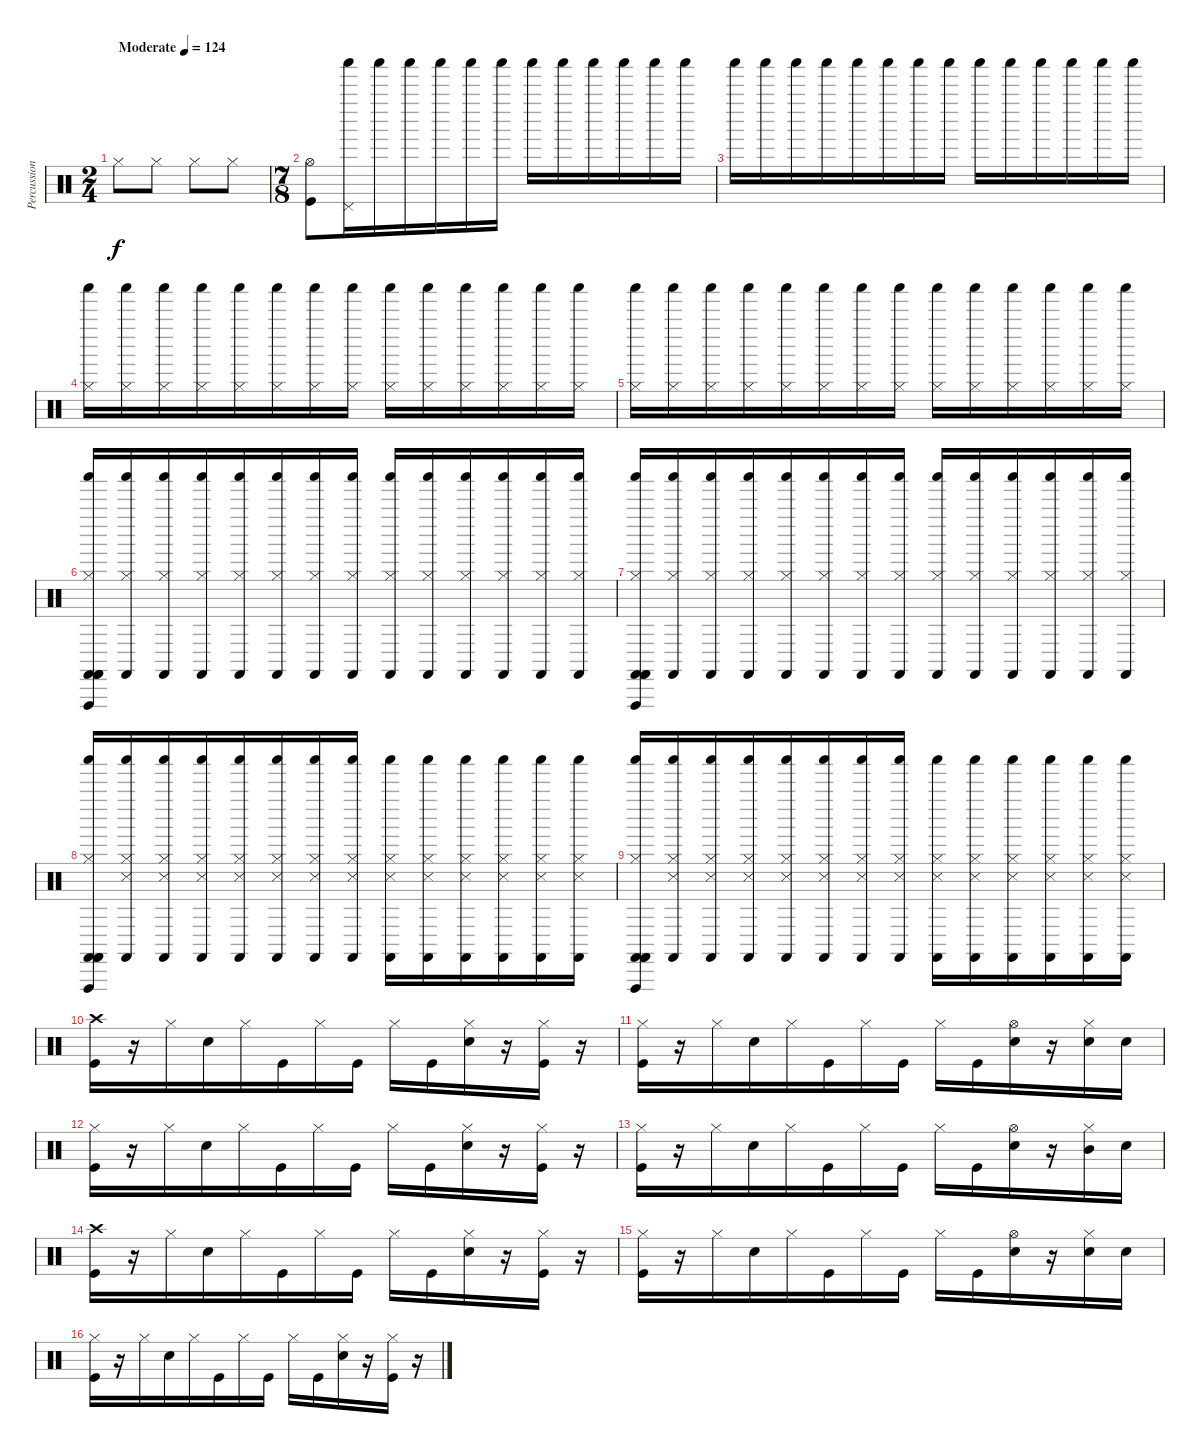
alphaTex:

\track ("Percussion" "Percussion") {instrument percussion}
\staff {score}
\articulation defaults
\ts (2 4)
\tempo (124 "Moderate")
\clef neutral
\ks c "Hi-Hat (closed)".8{dy f} "Hi-Hat (closed)".8 "Hi-Hat (closed)".8 "Hi-Hat (closed)".8
|
\ts (7 8)
("Kick (hit)" "Hi-Hat (open)").8 ("Shaker (hit)" "Pedal Hi-Hat (hit)").16{volume 14} "Shaker (hit)".16{volume 4} "Shaker (hit)".16{volume 14} "Shaker (hit)".16{volume 4} "Shaker (hit)".16{volume 14} "Shaker (hit)".16{volume 4} "Shaker (hit)".16{volume 14} "Shaker (hit)".16{volume 4} "Shaker (hit)".16{volume 14} "Shaker (hit)".16{volume 4} "Shaker (hit)".16{volume 14} "Shaker (hit)".16{volume 4} |
"Shaker (hit)".16{volume 14} "Shaker (hit)".16{volume 4} "Shaker (hit)".16{volume 14} "Shaker (hit)".16{volume 4} "Shaker (hit)".16{volume 14} "Shaker (hit)".16{volume 4} "Shaker (hit)".16{volume 14} "Shaker (hit)".16{volume 4} "Shaker (hit)".16{volume 14} "Shaker (hit)".16{volume 4} "Shaker (hit)".16{volume 14} "Shaker (hit)".16{volume 4} "Shaker (hit)".16{volume 14} "Shaker (hit)".16{volume 4} |
("Shaker (hit)" "Hi-Hat (closed)").16{volume 14} ("Shaker (hit)" "Hi-Hat (closed)").16{volume 4} ("Shaker (hit)" "Hi-Hat (closed)").16{volume 14} ("Shaker (hit)" "Hi-Hat (closed)").16{volume 4} ("Shaker (hit)" "Hi-Hat (closed)").16{volume 14} ("Shaker (hit)" "Hi-Hat (closed)").16{volume 4} ("Shaker (hit)" "Hi-Hat (closed)").16{volume 14} ("Shaker (hit)" "Hi-Hat (closed)").16{volume 4} ("Shaker (hit)" "Hi-Hat (closed)").16{volume 14} ("Shaker (hit)" "Hi-Hat (closed)").16{volume 4} ("Shaker (hit)" "Hi-Hat (closed)").16{volume 14} ("Shaker (hit)" "Hi-Hat (closed)").16{volume 4} ("Shaker (hit)" "Hi-Hat (closed)").16{volume 14} ("Shaker (hit)" "Hi-Hat (closed)").16{volume 4} |
("Shaker (hit)" "Hi-Hat (closed)").16{volume 14} ("Shaker (hit)" "Hi-Hat (closed)").16{volume 4} ("Shaker (hit)" "Hi-Hat (closed)").16{volume 14} ("Shaker (hit)" "Hi-Hat (closed)").16{volume 4} ("Shaker (hit)" "Hi-Hat (closed)").16{volume 14} ("Shaker (hit)" "Hi-Hat (closed)").16{volume 4} ("Shaker (hit)" "Hi-Hat (closed)").16{volume 14} ("Shaker (hit)" "Hi-Hat (closed)").16{volume 4} ("Shaker (hit)" "Hi-Hat (closed)").16{volume 14} ("Shaker (hit)" "Hi-Hat (closed)").16{volume 4} ("Shaker (hit)" "Hi-Hat (closed)").16{volume 14} ("Shaker (hit)" "Hi-Hat (closed)").16{volume 4} ("Shaker (hit)" "Hi-Hat (closed)").16{volume 14} ("Shaker (hit)" "Hi-Hat (closed)").16{volume 4} |
("Shaker (hit)" "Hi-Hat (closed)" "Vibraslap (hit)" "Castanets (hit)" "Castanets (hit)" "Castanets (hit)").16{volume 14} ("Shaker (hit)" "Hi-Hat (closed)" "Castanets (hit)").16{volume 4} ("Shaker (hit)" "Hi-Hat (closed)" "Castanets (hit)").16{volume 14} ("Shaker (hit)" "Hi-Hat (closed)" "Castanets (hit)").16{volume 4} ("Shaker (hit)" "Hi-Hat (closed)" "Castanets (hit)").16{volume 14} ("Shaker (hit)" "Hi-Hat (closed)" "Castanets (hit)").16{volume 4} ("Shaker (hit)" "Hi-Hat (closed)" "Castanets (hit)").16{volume 14} ("Shaker (hit)" "Hi-Hat (closed)" "Castanets (hit)").16{volume 4} ("Shaker (hit)" "Hi-Hat (closed)" "Castanets (hit)").16{volume 14} ("Shaker (hit)" "Hi-Hat (closed)" "Castanets (hit)").16{volume 4} ("Shaker (hit)" "Hi-Hat (closed)" "Castanets (hit)").16{volume 14} ("Shaker (hit)" "Hi-Hat (closed)" "Castanets (hit)").16{volume 4} ("Shaker (hit)" "Hi-Hat (closed)" "Castanets (hit)").16{volume 14} ("Shaker (hit)" "Hi-Hat (closed)" "Castanets (hit)").16{volume 4} |
("Shaker (hit)" "Hi-Hat (closed)" "Vibraslap (hit)" "Castanets (hit)" "Castanets (hit)" "Castanets (hit)").16{volume 14} ("Shaker (hit)" "Hi-Hat (closed)" "Castanets (hit)").16{volume 4} ("Shaker (hit)" "Hi-Hat (closed)" "Castanets (hit)").16{volume 14} ("Shaker (hit)" "Hi-Hat (closed)" "Castanets (hit)").16{volume 4} ("Shaker (hit)" "Hi-Hat (closed)" "Castanets (hit)").16{volume 14} ("Shaker (hit)" "Hi-Hat (closed)" "Castanets (hit)").16{volume 4} ("Shaker (hit)" "Hi-Hat (closed)" "Castanets (hit)").16{volume 14} ("Shaker (hit)" "Hi-Hat (closed)" "Castanets (hit)").16{volume 4} ("Shaker (hit)" "Hi-Hat (closed)" "Castanets (hit)").16{volume 14} ("Shaker (hit)" "Hi-Hat (closed)" "Castanets (hit)").16{volume 4} ("Shaker (hit)" "Hi-Hat (closed)" "Castanets (hit)").16{volume 14} ("Shaker (hit)" "Hi-Hat (closed)" "Castanets (hit)").16{volume 4} ("Shaker (hit)" "Hi-Hat (closed)" "Castanets (hit)").16{volume 14} ("Shaker (hit)" "Hi-Hat (closed)" "Castanets (hit)").16{volume 4} |
("Shaker (hit)" "Hi-Hat (closed)" "Vibraslap (hit)" "Castanets (hit)" "Castanets (hit)" "Castanets (hit)").16{volume 14} ("Shaker (hit)" "Hi-Hat (closed)" "Castanets (hit)" "Snare (side stick) 3").16{volume 4} ("Shaker (hit)" "Hi-Hat (closed)" "Castanets (hit)" "Snare (side stick) 3").16{volume 14} ("Shaker (hit)" "Hi-Hat (closed)" "Castanets (hit)" "Snare (side stick) 3").16{volume 4} ("Shaker (hit)" "Hi-Hat (closed)" "Castanets (hit)" "Snare (side stick) 3").16{volume 14} ("Shaker (hit)" "Hi-Hat (closed)" "Castanets (hit)" "Snare (side stick) 3").16{volume 4} ("Shaker (hit)" "Hi-Hat (closed)" "Castanets (hit)" "Snare (side stick) 3").16{volume 14} ("Shaker (hit)" "Hi-Hat (closed)" "Castanets (hit)" "Snare (side stick) 3").16{volume 4} ("Shaker (hit)" "Hi-Hat (closed)" "Castanets (hit)" "Snare (side stick) 3").16{volume 14} ("Shaker (hit)" "Hi-Hat (closed)" "Castanets (hit)" "Snare (side stick) 3").16{volume 4} ("Shaker (hit)" "Hi-Hat (closed)" "Castanets (hit)" "Snare (side stick) 3").16{volume 14} ("Shaker (hit)" "Hi-Hat (closed)" "Castanets (hit)" "Snare (side stick) 3").16{volume 4} ("Shaker (hit)" "Hi-Hat (closed)" "Castanets (hit)" "Snare (side stick) 3").16{volume 14} ("Shaker (hit)" "Hi-Hat (closed)" "Castanets (hit)" "Snare (side stick) 3").16{volume 4} |
("Shaker (hit)" "Hi-Hat (closed)" "Vibraslap (hit)" "Castanets (hit)" "Castanets (hit)" "Castanets (hit)").16{volume 14} ("Shaker (hit)" "Hi-Hat (closed)" "Castanets (hit)" "Snare (side stick) 3").16{volume 4} ("Shaker (hit)" "Hi-Hat (closed)" "Castanets (hit)" "Snare (side stick) 3").16{volume 14} ("Shaker (hit)" "Hi-Hat (closed)" "Castanets (hit)" "Snare (side stick) 3").16{volume 4} ("Shaker (hit)" "Hi-Hat (closed)" "Castanets (hit)" "Snare (side stick) 3").16{volume 14} ("Shaker (hit)" "Hi-Hat (closed)" "Castanets (hit)" "Snare (side stick) 3").16{volume 4} ("Shaker (hit)" "Hi-Hat (closed)" "Castanets (hit)" "Snare (side stick) 3").16{volume 14} ("Shaker (hit)" "Hi-Hat (closed)" "Castanets (hit)" "Snare (side stick) 3").16{volume 4} ("Shaker (hit)" "Hi-Hat (closed)" "Castanets (hit)" "Snare (side stick) 3").16{volume 14} ("Shaker (hit)" "Hi-Hat (closed)" "Castanets (hit)" "Snare (side stick) 3").16{volume 4} ("Shaker (hit)" "Hi-Hat (closed)" "Castanets (hit)" "Snare (side stick) 3").16{volume 14} ("Shaker (hit)" "Hi-Hat (closed)" "Castanets (hit)" "Snare (side stick) 3").16{volume 4} ("Shaker (hit)" "Hi-Hat (closed)" "Castanets (hit)" "Snare (side stick) 3").16{volume 14} ("Shaker (hit)" "Hi-Hat (closed)" "Castanets (hit)" "Snare (side stick) 3").16{volume 4} |
("Kick (hit)" "Crash high (hit)").16{volume 13} r.16 "Hi-Hat (closed)".16 "Snare (hit) 2".16 "Hi-Hat (closed)".16 "Kick (hit)".16 "Hi-Hat (closed)".16 "Kick (hit)".16 "Hi-Hat (closed)".16 "Kick (hit)".16 ("Hi-Hat (closed)" "Snare (hit) 2").16 r.16 ("Hi-Hat (closed)" "Kick (hit)").16 r.16 |
("Kick (hit)" "Hi-Hat (closed)").16{volume 13} r.16 "Hi-Hat (closed)".16 "Snare (hit) 2".16 "Hi-Hat (closed)".16 "Kick (hit)".16 "Hi-Hat (closed)".16 "Kick (hit)".16 "Hi-Hat (closed)".16 "Kick (hit)".16 ("Hi-Hat (open)" "Snare (hit) 2").16 r.16 ("Hi-Hat (closed)" "Snare (hit) 2").16 "Snare (hit) 2".16 |
("Kick (hit)" "Hi-Hat (closed)").16{volume 13} r.16 "Hi-Hat (closed)".16 "Snare (hit) 2".16 "Hi-Hat (closed)".16 "Kick (hit)".16 "Hi-Hat (closed)".16 "Kick (hit)".16 "Hi-Hat (closed)".16 "Kick (hit)".16 ("Hi-Hat (closed)" "Snare (hit) 2").16 r.16 ("Hi-Hat (closed)" "Kick (hit)").16 r.16 |
("Kick (hit)" "Hi-Hat (closed)").16{volume 13} r.16 "Hi-Hat (closed)".16 "Snare (hit) 2".16 "Hi-Hat (closed)".16 "Kick (hit)".16 "Hi-Hat (closed)".16 "Kick (hit)".16 "Hi-Hat (closed)".16 "Kick (hit)".16 ("Hi-Hat (open)" "Snare (hit) 2").16 r.16 ("Hi-Hat (closed)" "Mid Tom (hit)").16 "Snare (hit) 2".16 |
("Kick (hit)" "Crash high (hit)").16{volume 13} r.16 "Hi-Hat (closed)".16 "Snare (hit) 2".16 "Hi-Hat (closed)".16 "Kick (hit)".16 "Hi-Hat (closed)".16 "Kick (hit)".16 "Hi-Hat (closed)".16 "Kick (hit)".16 ("Hi-Hat (closed)" "Snare (hit) 2").16 r.16 ("Hi-Hat (closed)" "Kick (hit)").16 r.16 |
("Kick (hit)" "Hi-Hat (closed)").16{volume 13} r.16 "Hi-Hat (closed)".16 "Snare (hit) 2".16 "Hi-Hat (closed)".16 "Kick (hit)".16 "Hi-Hat (closed)".16 "Kick (hit)".16 "Hi-Hat (closed)".16 "Kick (hit)".16 ("Hi-Hat (open)" "Snare (hit) 2").16 r.16 ("Hi-Hat (closed)" "Snare (hit) 2").16 "Snare (hit) 2".16 |
("Kick (hit)" "Hi-Hat (closed)").16{volume 13} r.16 "Hi-Hat (closed)".16 "Snare (hit) 2".16 "Hi-Hat (closed)".16 "Kick (hit)".16 "Hi-Hat (closed)".16 "Kick (hit)".16 "Hi-Hat (closed)".16 "Kick (hit)".16 ("Hi-Hat (closed)" "Snare (hit) 2").16 r.16 ("Hi-Hat (closed)" "Kick (hit)").16 r.16
